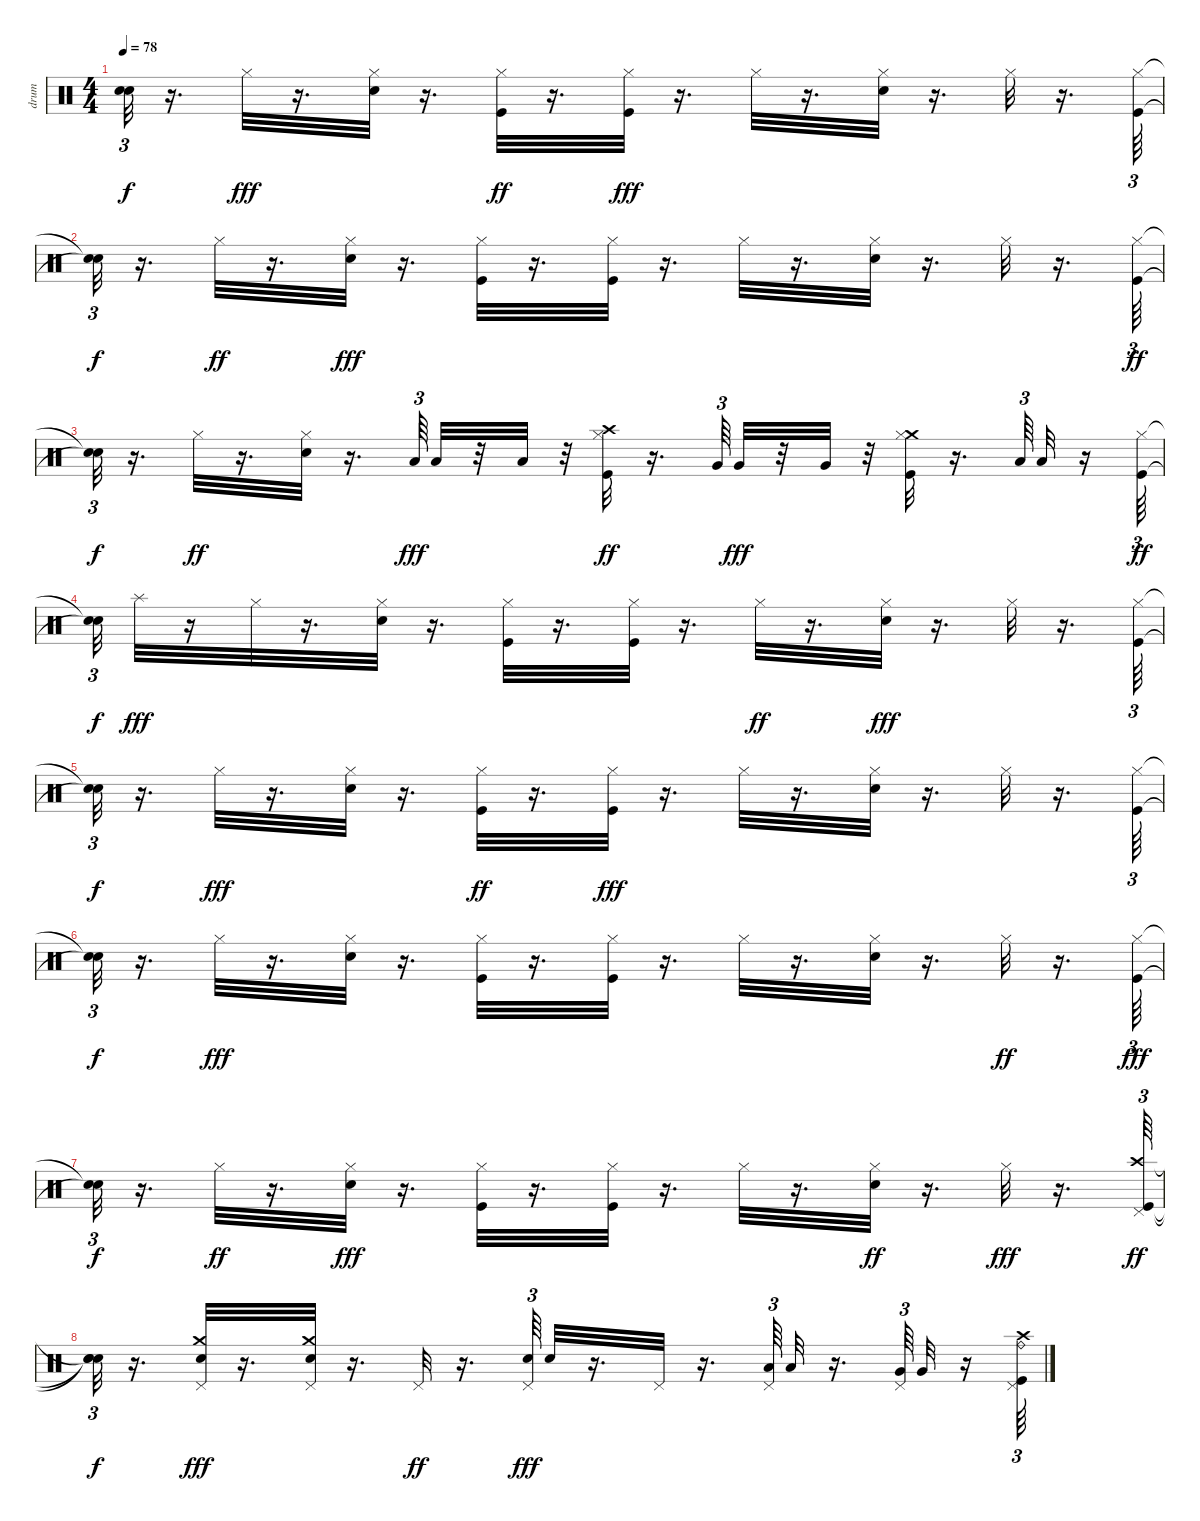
\track ("drum" "drum") {instrument percussion}
\staff {score}
\articulation defaults
\ts (4 4)
\tempo 78
\clef neutral
\ks c
("Snare (hit)"{t} "Snare (hit)"{t}).32{tu (3 2) dy f} r.16{d} "Hi-Hat (closed)".32{dy fff} r.16{d} ("Electric Snare (hit)" "Hi-Hat (closed)").32 r.16{d} ("Kick (hit)" "Hi-Hat (closed)").32{dy ff} r.16{d} ("Kick (hit)" "Hi-Hat (closed)").32{dy fff} r.16{d} "Hi-Hat (closed)".32 r.16{d} ("Electric Snare (hit)" "Hi-Hat (closed)").32 r.16{d} "Hi-Hat (closed)".32 r.16{d} ("Kick (hit)" "Hi-Hat (closed)").64{tu (3 2)} |
("Snare (hit)"{t} "Snare (hit)"{t}).32{tu (3 2) dy f} r.16{d} "Hi-Hat (closed)".32{dy ff} r.16{d} ("Electric Snare (hit)" "Hi-Hat (closed)").32{dy fff} r.16{d} ("Kick (hit)" "Hi-Hat (closed)").32 r.16{d} ("Kick (hit)" "Hi-Hat (closed)").32 r.16{d} "Hi-Hat (closed)".32 r.16{d} ("Electric Snare (hit)" "Hi-Hat (closed)").32 r.16{d} "Hi-Hat (closed)".32 r.16{d} ("Kick (hit)" "Hi-Hat (closed)").64{tu (3 2) dy ff} |
("Snare (hit)"{t} "Snare (hit)"{t}).32{tu (3 2) dy f} r.16{d} "Hi-Hat (closed)".32{dy ff} r.16{d} ("Electric Snare (hit)" "Hi-Hat (closed)").32 r.16{d} "Low Tom (hit)".64{tu (3 2) dy fff} "Low Tom (hit)".32 r.32 "Low Tom (hit)".32 r.32 ("Crash high (hit)" "Kick (hit)" "Hi-Hat (closed)").32{dy ff} r.16{d} "Very Low Tom (hit)".64{tu (3 2)} "Very Low Tom (hit)".32{dy fff} r.32 "Very Low Tom (hit)".32 r.32 ("Crash medium (hit)" "Kick (hit)" "Hi-Hat (closed)").32 r.16{d} "Low Floor Tom (hit)".64{tu (3 2)} "Low Floor Tom (hit)".32 r.16 ("Kick (hit)" "Hi-Hat (closed)").64{tu (3 2) dy ff} |
("Snare (hit)"{t} "Snare (hit)"{t}).32{tu (3 2) dy f} "Splash (hit)".32{dy fff} r.16 "Hi-Hat (closed)".32 r.16{d} ("Electric Snare (hit)" "Hi-Hat (closed)").32 r.16{d} ("Kick (hit)" "Hi-Hat (closed)").32 r.16{d} ("Kick (hit)" "Hi-Hat (closed)").32 r.16{d} "Hi-Hat (closed)".32{dy ff} r.16{d} ("Electric Snare (hit)" "Hi-Hat (closed)").32{dy fff} r.16{d} "Hi-Hat (closed)".32 r.16{d} ("Kick (hit)" "Hi-Hat (closed)").64{tu (3 2)} |
("Snare (hit)"{t} "Snare (hit)"{t}).32{tu (3 2) dy f} r.16{d} "Hi-Hat (closed)".32{dy fff} r.16{d} ("Electric Snare (hit)" "Hi-Hat (closed)").32 r.16{d} ("Kick (hit)" "Hi-Hat (closed)").32{dy ff} r.16{d} ("Kick (hit)" "Hi-Hat (closed)").32{dy fff} r.16{d} "Hi-Hat (closed)".32 r.16{d} ("Electric Snare (hit)" "Hi-Hat (closed)").32 r.16{d} "Hi-Hat (closed)".32 r.16{d} ("Kick (hit)" "Hi-Hat (closed)").64{tu (3 2)} |
("Snare (hit)"{t} "Snare (hit)"{t}).32{tu (3 2) dy f} r.16{d} "Hi-Hat (closed)".32{dy fff} r.16{d} ("Electric Snare (hit)" "Hi-Hat (closed)").32 r.16{d} ("Kick (hit)" "Hi-Hat (closed)").32 r.16{d} ("Kick (hit)" "Hi-Hat (closed)").32 r.16{d} "Hi-Hat (closed)".32 r.16{d} ("Electric Snare (hit)" "Hi-Hat (closed)").32 r.16{d} "Hi-Hat (closed)".32{dy ff} r.16{d} ("Kick (hit)" "Hi-Hat (closed)").64{tu (3 2) dy fff} |
("Snare (hit)"{t} "Snare (hit)"{t}).32{tu (3 2) dy f} r.16{d} "Hi-Hat (closed)".32{dy ff} r.16{d} ("Electric Snare (hit)" "Hi-Hat (closed)").32{dy fff} r.16{d} ("Kick (hit)" "Hi-Hat (closed)").32 r.16{d} ("Kick (hit)" "Hi-Hat (closed)").32 r.16{d} "Hi-Hat (closed)".32 r.16{d} ("Electric Snare (hit)" "Hi-Hat (closed)").32{dy ff} r.16{d} "Hi-Hat (closed)".32{dy fff} r.16{d} ("Pedal Hi-Hat (hit)" "Crash high (hit)" "Kick (hit)").64{tu (3 2) dy ff} |
("Snare (hit)"{t} "Snare (hit)"{t} "Snare (hit)"{t}).32{tu (3 2) dy f} r.16{d} ("Pedal Hi-Hat (hit)" "Crash medium (hit)" "Electric Snare (hit)").32{dy fff} r.16{d} ("Pedal Hi-Hat (hit)" "Crash medium (hit)" "Electric Snare (hit)").32 r.16{d} "Pedal Hi-Hat (hit)".32{dy ff} r.16{d} ("Pedal Hi-Hat (hit)" "Electric Snare (hit)").64{tu (3 2) dy fff} "Electric Snare (hit)".32 r.16{d} "Pedal Hi-Hat (hit)".32 r.16{d} ("Low Tom (hit)" "Pedal Hi-Hat (hit)").64{tu (3 2)} "Low Tom (hit)".32 r.16{d} ("Pedal Hi-Hat (hit)" "Very Low Tom (hit)").64{tu (3 2)} "Very Low Tom (hit)".32 r.16 ("Ride (bell)" "Pedal Hi-Hat (hit)" "Kick (hit)" "Crash high (hit)").64{tu (3 2)}
